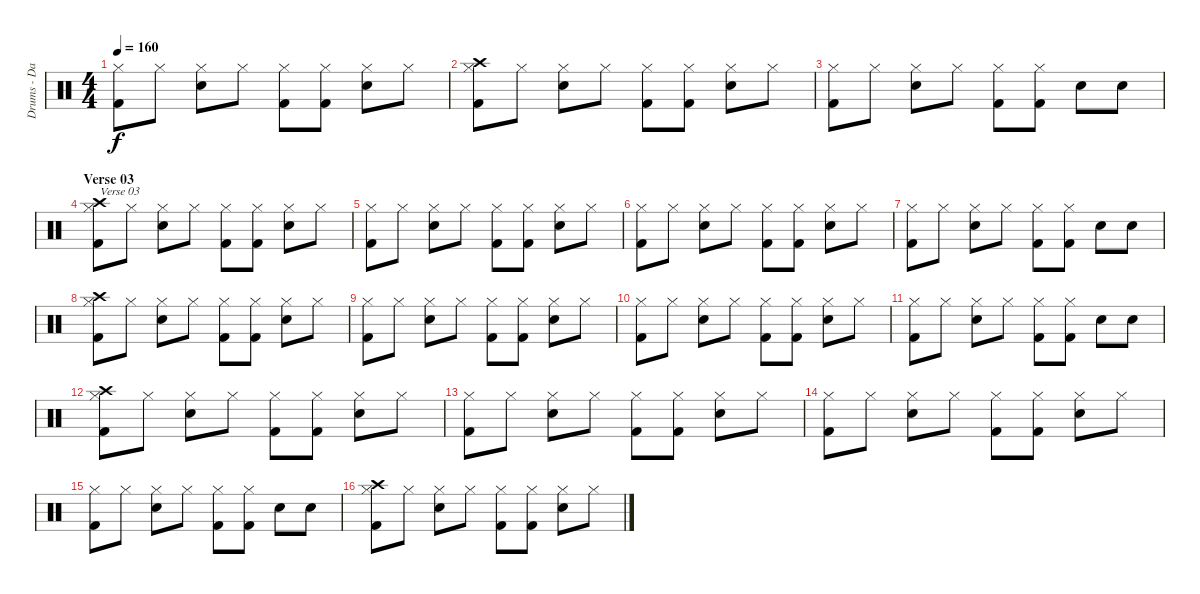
\track ("Drums - Daniel Zimmermann" "Drums - Da") {instrument percussion}
\staff {score}
\articulation defaults
\ts (4 4)
\tempo 160
\clef neutral
\ks c
("Hi-Hat (closed)" "Kick (hit) 2").8{dy f} "Hi-Hat (closed)".8 ("Hi-Hat (closed)" "Snare (hit) 2").8 "Hi-Hat (closed)".8 ("Hi-Hat (closed)" "Kick (hit) 2").8 ("Hi-Hat (closed)" "Kick (hit) 2").8 ("Hi-Hat (closed)" "Snare (hit) 2").8 "Hi-Hat (closed)".8 |
("Hi-Hat (closed)" "Kick (hit) 2" "Crash high (hit)").8 "Hi-Hat (closed)".8 ("Hi-Hat (closed)" "Snare (hit) 2").8 "Hi-Hat (closed)".8 ("Hi-Hat (closed)" "Kick (hit) 2").8 ("Hi-Hat (closed)" "Kick (hit) 2").8 ("Hi-Hat (closed)" "Snare (hit) 2").8 "Hi-Hat (closed)".8 |
("Hi-Hat (closed)" "Kick (hit) 2").8 "Hi-Hat (closed)".8 ("Hi-Hat (closed)" "Snare (hit) 2").8 "Hi-Hat (closed)".8 ("Hi-Hat (closed)" "Kick (hit) 2").8 ("Hi-Hat (closed)" "Kick (hit) 2").8 "Snare (hit) 2".8 "Snare (hit) 2".8 |
\section ("" "Verse 03")
("Hi-Hat (closed)" "Kick (hit) 2" "Crash high (hit)").8{txt "Verse 03"} "Hi-Hat (closed)".8 ("Hi-Hat (closed)" "Snare (hit) 2").8 "Hi-Hat (closed)".8 ("Hi-Hat (closed)" "Kick (hit) 2").8 ("Hi-Hat (closed)" "Kick (hit) 2").8 ("Hi-Hat (closed)" "Snare (hit) 2").8 "Hi-Hat (closed)".8 |
("Hi-Hat (closed)" "Kick (hit) 2").8 "Hi-Hat (closed)".8 ("Hi-Hat (closed)" "Snare (hit) 2").8 "Hi-Hat (closed)".8 ("Hi-Hat (closed)" "Kick (hit) 2").8 ("Hi-Hat (closed)" "Kick (hit) 2").8 ("Hi-Hat (closed)" "Snare (hit) 2").8 "Hi-Hat (closed)".8 |
("Hi-Hat (closed)" "Kick (hit) 2").8 "Hi-Hat (closed)".8 ("Hi-Hat (closed)" "Snare (hit) 2").8 "Hi-Hat (closed)".8 ("Hi-Hat (closed)" "Kick (hit) 2").8 ("Hi-Hat (closed)" "Kick (hit) 2").8 ("Hi-Hat (closed)" "Snare (hit) 2").8 "Hi-Hat (closed)".8 |
("Hi-Hat (closed)" "Kick (hit) 2").8 "Hi-Hat (closed)".8 ("Hi-Hat (closed)" "Snare (hit) 2").8 "Hi-Hat (closed)".8 ("Hi-Hat (closed)" "Kick (hit) 2").8 ("Hi-Hat (closed)" "Kick (hit) 2").8 "Snare (hit) 2".8 "Snare (hit) 2".8 |
("Hi-Hat (closed)" "Kick (hit) 2" "Crash high (hit)").8 "Hi-Hat (closed)".8 ("Hi-Hat (closed)" "Snare (hit) 2").8 "Hi-Hat (closed)".8 ("Hi-Hat (closed)" "Kick (hit) 2").8 ("Hi-Hat (closed)" "Kick (hit) 2").8 ("Hi-Hat (closed)" "Snare (hit) 2").8 "Hi-Hat (closed)".8 |
("Hi-Hat (closed)" "Kick (hit) 2").8 "Hi-Hat (closed)".8 ("Hi-Hat (closed)" "Snare (hit) 2").8 "Hi-Hat (closed)".8 ("Hi-Hat (closed)" "Kick (hit) 2").8 ("Hi-Hat (closed)" "Kick (hit) 2").8 ("Hi-Hat (closed)" "Snare (hit) 2").8 "Hi-Hat (closed)".8 |
("Hi-Hat (closed)" "Kick (hit) 2").8 "Hi-Hat (closed)".8 ("Hi-Hat (closed)" "Snare (hit) 2").8 "Hi-Hat (closed)".8 ("Hi-Hat (closed)" "Kick (hit) 2").8 ("Hi-Hat (closed)" "Kick (hit) 2").8 ("Hi-Hat (closed)" "Snare (hit) 2").8 "Hi-Hat (closed)".8 |
("Hi-Hat (closed)" "Kick (hit) 2").8 "Hi-Hat (closed)".8 ("Hi-Hat (closed)" "Snare (hit) 2").8 "Hi-Hat (closed)".8 ("Hi-Hat (closed)" "Kick (hit) 2").8 ("Hi-Hat (closed)" "Kick (hit) 2").8 "Snare (hit) 2".8 "Snare (hit) 2".8 |
("Hi-Hat (closed)" "Kick (hit) 2" "Crash high (hit)").8 "Hi-Hat (closed)".8 ("Hi-Hat (closed)" "Snare (hit) 2").8 "Hi-Hat (closed)".8 ("Hi-Hat (closed)" "Kick (hit) 2").8 ("Hi-Hat (closed)" "Kick (hit) 2").8 ("Hi-Hat (closed)" "Snare (hit) 2").8 "Hi-Hat (closed)".8 |
("Hi-Hat (closed)" "Kick (hit) 2").8 "Hi-Hat (closed)".8 ("Hi-Hat (closed)" "Snare (hit) 2").8 "Hi-Hat (closed)".8 ("Hi-Hat (closed)" "Kick (hit) 2").8 ("Hi-Hat (closed)" "Kick (hit) 2").8 ("Hi-Hat (closed)" "Snare (hit) 2").8 "Hi-Hat (closed)".8 |
("Hi-Hat (closed)" "Kick (hit) 2").8 "Hi-Hat (closed)".8 ("Hi-Hat (closed)" "Snare (hit) 2").8 "Hi-Hat (closed)".8 ("Hi-Hat (closed)" "Kick (hit) 2").8 ("Hi-Hat (closed)" "Kick (hit) 2").8 ("Hi-Hat (closed)" "Snare (hit) 2").8 "Hi-Hat (closed)".8 |
("Hi-Hat (closed)" "Kick (hit) 2").8 "Hi-Hat (closed)".8 ("Hi-Hat (closed)" "Snare (hit) 2").8 "Hi-Hat (closed)".8 ("Hi-Hat (closed)" "Kick (hit) 2").8 ("Hi-Hat (closed)" "Kick (hit) 2").8 "Snare (hit) 2".8 "Snare (hit) 2".8 |
("Hi-Hat (closed)" "Kick (hit) 2" "Crash high (hit)").8 "Hi-Hat (closed)".8 ("Hi-Hat (closed)" "Snare (hit) 2").8 "Hi-Hat (closed)".8 ("Hi-Hat (closed)" "Kick (hit) 2").8 ("Hi-Hat (closed)" "Kick (hit) 2").8 ("Hi-Hat (closed)" "Snare (hit) 2").8 "Hi-Hat (closed)".8
